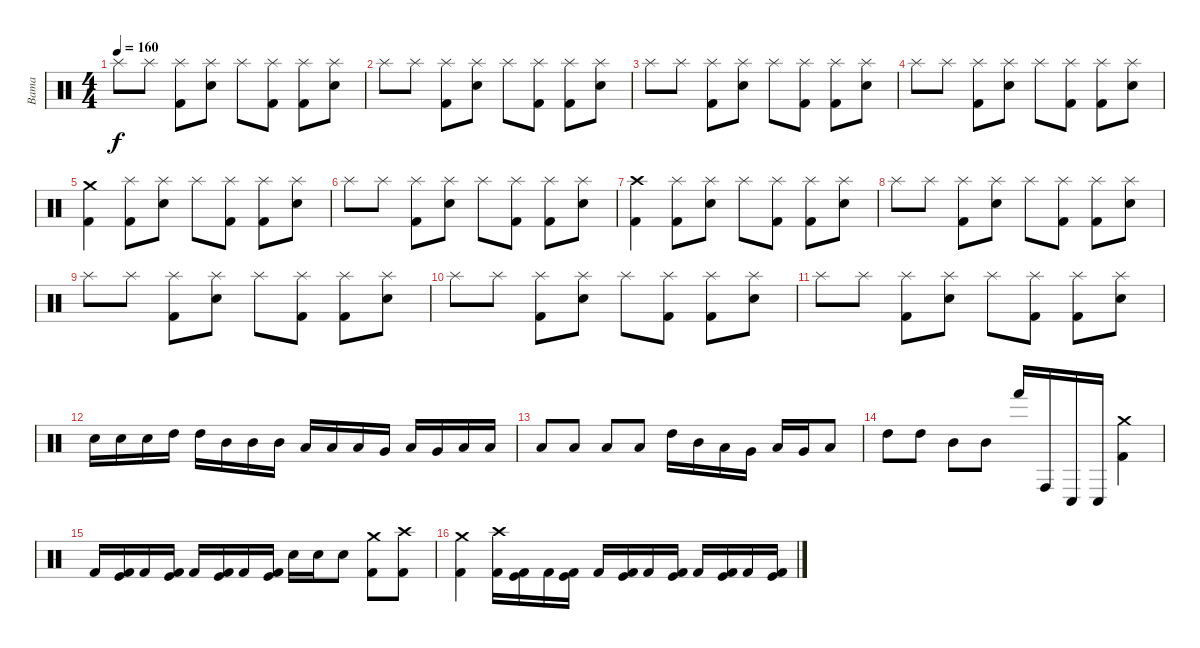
\track ("Bama" "Bama") {instrument percussion}
\staff {score}
\articulation defaults
\ts (4 4)
\tempo 160
\clef neutral
\ks c "Splash (hit)".8{dy f} "Splash (hit)".8
("Splash (hit)" "Kick (hit) 2").8 ("Splash (hit)" "Electric Snare (hit)").8 "Splash (hit)".8 ("Splash (hit)" "Kick (hit) 2").8 ("Splash (hit)" "Kick (hit) 2").8 ("Splash (hit)" "Electric Snare (hit)").8 |
"Splash (hit)".8 "Splash (hit)".8 ("Splash (hit)" "Kick (hit) 2").8 ("Splash (hit)" "Electric Snare (hit)").8 "Splash (hit)".8 ("Splash (hit)" "Kick (hit) 2").8 ("Splash (hit)" "Kick (hit) 2").8 ("Splash (hit)" "Electric Snare (hit)").8 |
"Splash (hit)".8 "Splash (hit)".8 ("Splash (hit)" "Kick (hit) 2").8 ("Splash (hit)" "Electric Snare (hit)").8 "Splash (hit)".8 ("Splash (hit)" "Kick (hit) 2").8 ("Splash (hit)" "Kick (hit) 2").8 ("Splash (hit)" "Electric Snare (hit)").8 |
"Splash (hit)".8 "Splash (hit)".8 ("Splash (hit)" "Kick (hit) 2").8 ("Splash (hit)" "Electric Snare (hit)").8 "Splash (hit)".8 ("Splash (hit)" "Kick (hit) 2").8 ("Splash (hit)" "Kick (hit) 2").8 ("Splash (hit)" "Electric Snare (hit)").8 |
("Crash medium (hit)" "Kick (hit) 2").4 ("Splash (hit)" "Kick (hit) 2").8 ("Splash (hit)" "Electric Snare (hit)").8 "Splash (hit)".8 ("Splash (hit)" "Kick (hit) 2").8 ("Splash (hit)" "Kick (hit) 2").8 ("Splash (hit)" "Electric Snare (hit)").8 |
"Splash (hit)".8 "Splash (hit)".8 ("Splash (hit)" "Kick (hit) 2").8 ("Splash (hit)" "Electric Snare (hit)").8 "Splash (hit)".8 ("Splash (hit)" "Kick (hit) 2").8 ("Splash (hit)" "Kick (hit) 2").8 ("Splash (hit)" "Electric Snare (hit)").8 |
("Crash high (hit)" "Kick (hit) 2").4 ("Splash (hit)" "Kick (hit) 2").8 ("Splash (hit)" "Electric Snare (hit)").8 "Splash (hit)".8 ("Splash (hit)" "Kick (hit) 2").8 ("Splash (hit)" "Kick (hit) 2").8 ("Splash (hit)" "Electric Snare (hit)").8 |
"Splash (hit)".8 "Splash (hit)".8 ("Splash (hit)" "Kick (hit) 2").8 ("Splash (hit)" "Electric Snare (hit)").8 "Splash (hit)".8 ("Splash (hit)" "Kick (hit) 2").8 ("Splash (hit)" "Kick (hit) 2").8 ("Splash (hit)" "Electric Snare (hit)").8 |
"Splash (hit)".8 "Splash (hit)".8 ("Splash (hit)" "Kick (hit) 2").8 ("Splash (hit)" "Electric Snare (hit)").8 "Splash (hit)".8 ("Splash (hit)" "Kick (hit) 2").8 ("Splash (hit)" "Kick (hit) 2").8 ("Splash (hit)" "Electric Snare (hit)").8 |
"Splash (hit)".8 "Splash (hit)".8 ("Splash (hit)" "Kick (hit) 2").8 ("Splash (hit)" "Electric Snare (hit)").8 "Splash (hit)".8 ("Splash (hit)" "Kick (hit) 2").8 ("Splash (hit)" "Kick (hit) 2").8 ("Splash (hit)" "Electric Snare (hit)").8 |
"Splash (hit)".8 "Splash (hit)".8 ("Splash (hit)" "Kick (hit) 2").8 ("Splash (hit)" "Electric Snare (hit)").8 "Splash (hit)".8 ("Splash (hit)" "Kick (hit) 2").8 ("Splash (hit)" "Kick (hit) 2").8 ("Splash (hit)" "Electric Snare (hit)").8 |
"Electric Snare (hit)".16 "Electric Snare (hit)".16 "Electric Snare (hit)".16 "High Tom (hit)".16 "High Tom (hit)".16 "Mid Tom (hit)".16 "Mid Tom (hit)".16 "Mid Tom (hit)".16 "Low Tom (hit)".16 "Low Tom (hit)".16 "Low Tom (hit)".16 "Very Low Tom (hit)".16 "Low Tom (hit)".16 "Very Low Tom (hit)".16 "Low Floor Tom (hit)".16 "Low Floor Tom (hit)".16 |
"Low Tom (hit)".8 "Low Tom (hit)".8 "Low Floor Tom (hit)".8 "Low Floor Tom (hit)".8 "High Tom (hit)".16 "Mid Tom (hit)".16 "Low Tom (hit)".16 "Very Low Tom (hit)".16 "Low Tom (hit)".16 "Very Low Tom (hit)".16 "Low Floor Tom (hit)".8 |
"High Tom (hit)".8 "High Tom (hit)".8 "Mid Tom (hit)".8 "Mid Tom (hit)".8 "Hand (hit)".16 "Conga high (hit)".16 "Conga low (hit)".16 "Conga low (hit)".16 ("Crash medium (hit)" "Kick (hit) 2").4 |
"Kick (hit) 2".16 ("Kick (hit)" "Kick (hit) 2").16 "Kick (hit) 2".16 ("Kick (hit)" "Kick (hit) 2").16 "Kick (hit) 2".16 ("Kick (hit)" "Kick (hit) 2").16 "Kick (hit) 2".16 ("Kick (hit)" "Kick (hit) 2").16 "Electric Snare (hit)".16 "Electric Snare (hit)".16 "Electric Snare (hit)".8 ("Crash medium (hit)" "Kick (hit) 2").8 ("Crash high (hit)" "Kick (hit) 2").8 |
("Crash medium (hit)" "Kick (hit) 2").4 ("Crash high (hit)" "Kick (hit) 2").16 ("Kick (hit)" "Kick (hit) 2").16 "Kick (hit) 2".16 ("Kick (hit)" "Kick (hit) 2").16 "Kick (hit) 2".16 ("Kick (hit)" "Kick (hit) 2").16 "Kick (hit) 2".16 ("Kick (hit)" "Kick (hit) 2").16 "Kick (hit) 2".16 ("Kick (hit)" "Kick (hit) 2").16 "Kick (hit) 2".16 ("Kick (hit)" "Kick (hit) 2").16
